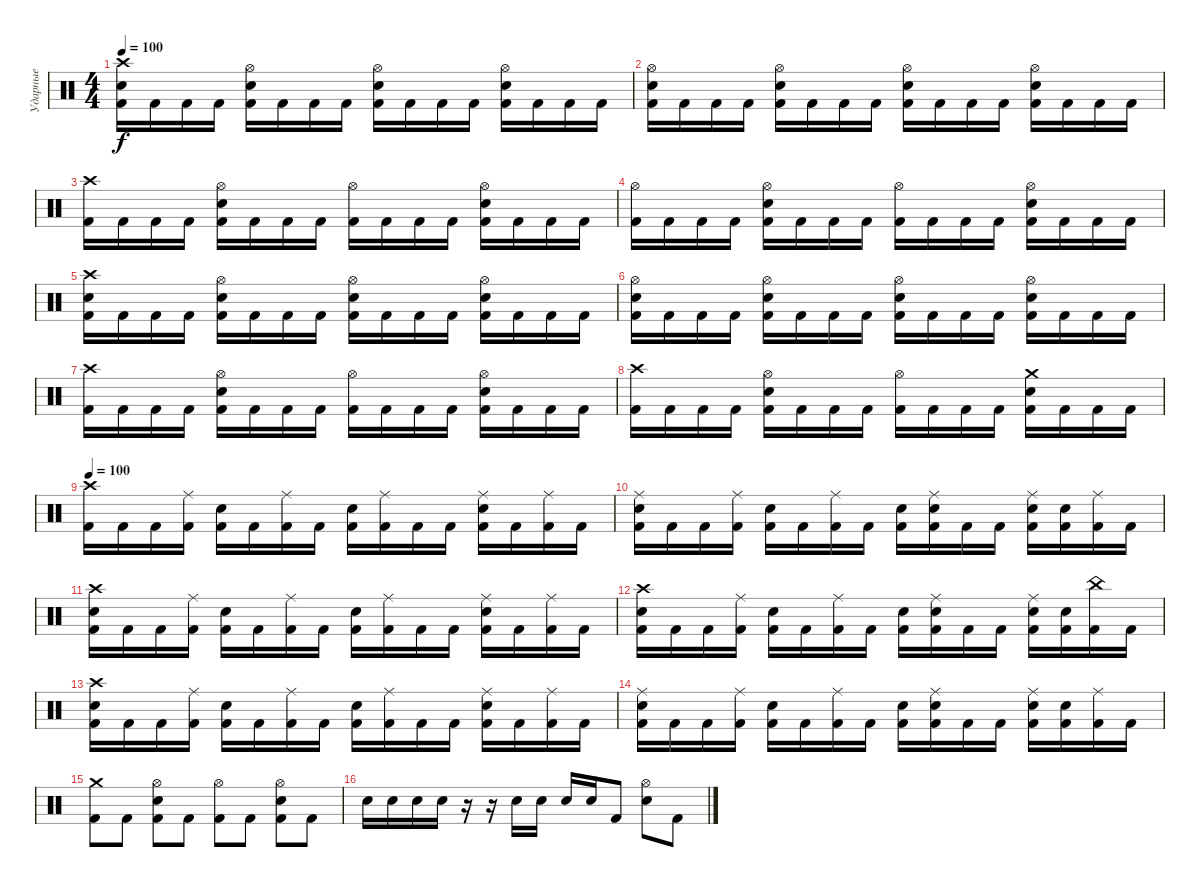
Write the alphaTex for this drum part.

\track ("Ударные" "Ударные") {instrument percussion}
\staff {score}
\articulation defaults
\ts (4 4)
\tempo 100
\clef neutral
\ks c
("Crash high (hit)" "Electric Snare (hit)" "Kick (hit) 2").16{dy f} "Kick (hit) 2".16 "Kick (hit) 2".16 "Kick (hit) 2".16 ("Hi-Hat (open)" "Electric Snare (hit)" "Kick (hit) 2").16 "Kick (hit) 2".16 "Kick (hit) 2".16 "Kick (hit) 2".16 ("Hi-Hat (open)" "Electric Snare (hit)" "Kick (hit) 2").16 "Kick (hit) 2".16 "Kick (hit) 2".16 "Kick (hit) 2".16 ("Hi-Hat (open)" "Electric Snare (hit)" "Kick (hit) 2").16 "Kick (hit) 2".16 "Kick (hit) 2".16 "Kick (hit) 2".16 |
("Hi-Hat (open)" "Electric Snare (hit)" "Kick (hit) 2").16 "Kick (hit) 2".16 "Kick (hit) 2".16 "Kick (hit) 2".16 ("Hi-Hat (open)" "Electric Snare (hit)" "Kick (hit) 2").16 "Kick (hit) 2".16 "Kick (hit) 2".16 "Kick (hit) 2".16 ("Hi-Hat (open)" "Electric Snare (hit)" "Kick (hit) 2").16 "Kick (hit) 2".16 "Kick (hit) 2".16 "Kick (hit) 2".16 ("Hi-Hat (open)" "Electric Snare (hit)" "Kick (hit) 2").16 "Kick (hit) 2".16 "Kick (hit) 2".16 "Kick (hit) 2".16 |
("Crash high (hit)" "Kick (hit) 2").16 "Kick (hit) 2".16 "Kick (hit) 2".16 "Kick (hit) 2".16 ("Hi-Hat (open)" "Electric Snare (hit)" "Kick (hit) 2").16 "Kick (hit) 2".16 "Kick (hit) 2".16 "Kick (hit) 2".16 ("Hi-Hat (open)" "Kick (hit) 2").16 "Kick (hit) 2".16 "Kick (hit) 2".16 "Kick (hit) 2".16 ("Hi-Hat (open)" "Electric Snare (hit)" "Kick (hit) 2").16 "Kick (hit) 2".16 "Kick (hit) 2".16 "Kick (hit) 2".16 |
("Hi-Hat (open)" "Kick (hit) 2").16 "Kick (hit) 2".16 "Kick (hit) 2".16 "Kick (hit) 2".16 ("Hi-Hat (open)" "Electric Snare (hit)" "Kick (hit) 2").16 "Kick (hit) 2".16 "Kick (hit) 2".16 "Kick (hit) 2".16 ("Hi-Hat (open)" "Kick (hit) 2").16 "Kick (hit) 2".16 "Kick (hit) 2".16 "Kick (hit) 2".16 ("Hi-Hat (open)" "Electric Snare (hit)" "Kick (hit) 2").16 "Kick (hit) 2".16 "Kick (hit) 2".16 "Kick (hit) 2".16 |
("Crash high (hit)" "Electric Snare (hit)" "Kick (hit) 2").16 "Kick (hit) 2".16 "Kick (hit) 2".16 "Kick (hit) 2".16 ("Hi-Hat (open)" "Electric Snare (hit)" "Kick (hit) 2").16 "Kick (hit) 2".16 "Kick (hit) 2".16 "Kick (hit) 2".16 ("Hi-Hat (open)" "Electric Snare (hit)" "Kick (hit) 2").16 "Kick (hit) 2".16 "Kick (hit) 2".16 "Kick (hit) 2".16 ("Hi-Hat (open)" "Electric Snare (hit)" "Kick (hit) 2").16 "Kick (hit) 2".16 "Kick (hit) 2".16 "Kick (hit) 2".16 |
("Hi-Hat (open)" "Electric Snare (hit)" "Kick (hit) 2").16 "Kick (hit) 2".16 "Kick (hit) 2".16 "Kick (hit) 2".16 ("Hi-Hat (open)" "Electric Snare (hit)" "Kick (hit) 2").16 "Kick (hit) 2".16 "Kick (hit) 2".16 "Kick (hit) 2".16 ("Hi-Hat (open)" "Electric Snare (hit)" "Kick (hit) 2").16 "Kick (hit) 2".16 "Kick (hit) 2".16 "Kick (hit) 2".16 ("Hi-Hat (open)" "Electric Snare (hit)" "Kick (hit) 2").16 "Kick (hit) 2".16 "Kick (hit) 2".16 "Kick (hit) 2".16 |
("Crash high (hit)" "Kick (hit) 2").16 "Kick (hit) 2".16 "Kick (hit) 2".16 "Kick (hit) 2".16 ("Hi-Hat (open)" "Electric Snare (hit)" "Kick (hit) 2").16 "Kick (hit) 2".16 "Kick (hit) 2".16 "Kick (hit) 2".16 ("Hi-Hat (open)" "Kick (hit) 2").16 "Kick (hit) 2".16 "Kick (hit) 2".16 "Kick (hit) 2".16 ("Hi-Hat (open)" "Electric Snare (hit)" "Kick (hit) 2").16 "Kick (hit) 2".16 "Kick (hit) 2".16 "Kick (hit) 2".16 |
("Crash high (hit)" "Kick (hit) 2").16 "Kick (hit) 2".16 "Kick (hit) 2".16 "Kick (hit) 2".16 ("Hi-Hat (open)" "Electric Snare (hit)" "Kick (hit) 2").16 "Kick (hit) 2".16 "Kick (hit) 2".16 "Kick (hit) 2".16 ("Hi-Hat (open)" "Kick (hit) 2").16 "Kick (hit) 2".16 "Kick (hit) 2".16 "Kick (hit) 2".16 ("Crash medium (hit)" "Electric Snare (hit)" "Kick (hit) 2").16 "Kick (hit) 2".16 "Kick (hit) 2".16 "Kick (hit) 2".16 |
\tempo 100
("Crash high (hit)" "Kick (hit) 2").16 "Kick (hit) 2".16 "Kick (hit) 2".16 ("Ride (middle)" "Kick (hit) 2").16 ("Electric Snare (hit)" "Kick (hit) 2").16 "Kick (hit) 2".16 ("Ride (middle)" "Kick (hit) 2").16 "Kick (hit) 2".16 ("Electric Snare (hit)" "Kick (hit) 2").16 ("Ride (middle)" "Kick (hit) 2").16 "Kick (hit) 2".16 "Kick (hit) 2".16 ("Ride (middle)" "Electric Snare (hit)" "Kick (hit) 2").16 "Kick (hit) 2".16 ("Ride (middle)" "Kick (hit) 2").16 "Kick (hit) 2".16 |
("Ride (middle)" "Electric Snare (hit)" "Kick (hit) 2").16 "Kick (hit) 2".16 "Kick (hit) 2".16 ("Ride (middle)" "Kick (hit) 2").16 ("Electric Snare (hit)" "Kick (hit) 2").16 "Kick (hit) 2".16 ("Ride (middle)" "Kick (hit) 2").16 "Kick (hit) 2".16 ("Electric Snare (hit)" "Kick (hit) 2").16 ("Ride (middle)" "Electric Snare (hit)" "Kick (hit) 2").16 "Kick (hit) 2".16 "Kick (hit) 2".16 ("Ride (middle)" "Electric Snare (hit)" "Kick (hit) 2").16 ("Electric Snare (hit)" "Kick (hit) 2").16 ("Ride (middle)" "Kick (hit) 2").16 "Kick (hit) 2".16 |
("Crash high (hit)" "Electric Snare (hit)" "Kick (hit) 2").16 "Kick (hit) 2".16 "Kick (hit) 2".16 ("Ride (middle)" "Kick (hit) 2").16 ("Electric Snare (hit)" "Kick (hit) 2").16 "Kick (hit) 2".16 ("Ride (middle)" "Kick (hit) 2").16 "Kick (hit) 2".16 ("Electric Snare (hit)" "Kick (hit) 2").16 ("Ride (middle)" "Kick (hit) 2").16 "Kick (hit) 2".16 "Kick (hit) 2".16 ("Ride (middle)" "Electric Snare (hit)" "Kick (hit) 2").16 "Kick (hit) 2".16 ("Ride (middle)" "Kick (hit) 2").16 "Kick (hit) 2".16 |
("Crash high (hit)" "Electric Snare (hit)" "Kick (hit) 2").16 "Kick (hit) 2".16 "Kick (hit) 2".16 ("Ride (middle)" "Kick (hit) 2").16 ("Electric Snare (hit)" "Kick (hit) 2").16 "Kick (hit) 2".16 ("Ride (middle)" "Kick (hit) 2").16 "Kick (hit) 2".16 ("Electric Snare (hit)" "Kick (hit) 2").16 ("Ride (middle)" "Electric Snare (hit)" "Kick (hit) 2").16 "Kick (hit) 2".16 "Kick (hit) 2".16 ("Ride (middle)" "Electric Snare (hit)" "Kick (hit) 2").16 ("Electric Snare (hit)" "Kick (hit) 2").16 ("China (hit)" "Kick (hit) 2").16 "Kick (hit) 2".16 |
("Crash high (hit)" "Electric Snare (hit)" "Kick (hit) 2").16 "Kick (hit) 2".16 "Kick (hit) 2".16 ("Ride (middle)" "Kick (hit) 2").16 ("Electric Snare (hit)" "Kick (hit) 2").16 "Kick (hit) 2".16 ("Ride (middle)" "Kick (hit) 2").16 "Kick (hit) 2".16 ("Electric Snare (hit)" "Kick (hit) 2").16 ("Ride (middle)" "Kick (hit) 2").16 "Kick (hit) 2".16 "Kick (hit) 2".16 ("Ride (middle)" "Electric Snare (hit)" "Kick (hit) 2").16 "Kick (hit) 2".16 ("Ride (middle)" "Kick (hit) 2").16 "Kick (hit) 2".16 |
("Ride (middle)" "Electric Snare (hit)" "Kick (hit) 2").16 "Kick (hit) 2".16 "Kick (hit) 2".16 ("Ride (middle)" "Kick (hit) 2").16 ("Electric Snare (hit)" "Kick (hit) 2").16 "Kick (hit) 2".16 ("Ride (middle)" "Kick (hit) 2").16 "Kick (hit) 2".16 ("Electric Snare (hit)" "Kick (hit) 2").16 ("Ride (middle)" "Electric Snare (hit)" "Kick (hit) 2").16 "Kick (hit) 2".16 "Kick (hit) 2".16 ("Ride (middle)" "Electric Snare (hit)" "Kick (hit) 2").16 ("Electric Snare (hit)" "Kick (hit) 2").16 ("Ride (middle)" "Kick (hit) 2").16 "Kick (hit) 2".16 |
("Crash medium (hit)" "Kick (hit) 2").8 "Kick (hit) 2".8 ("Hi-Hat (open)" "Electric Snare (hit)" "Kick (hit) 2").8 "Kick (hit) 2".8 ("Hi-Hat (open)" "Kick (hit) 2").8 "Kick (hit) 2".8 ("Hi-Hat (open)" "Electric Snare (hit)" "Kick (hit) 2").8 "Kick (hit) 2".8 |
"Electric Snare (hit)".16 "Electric Snare (hit)".16 "Electric Snare (hit)".16 "Electric Snare (hit)".16 r.16 r.16 "Electric Snare (hit)".16 "Electric Snare (hit)".16 "Electric Snare (hit)".16 "Electric Snare (hit)".16 "Kick (hit) 2".8 ("Hi-Hat (open)" "Electric Snare (hit)").8 "Kick (hit) 2".8
